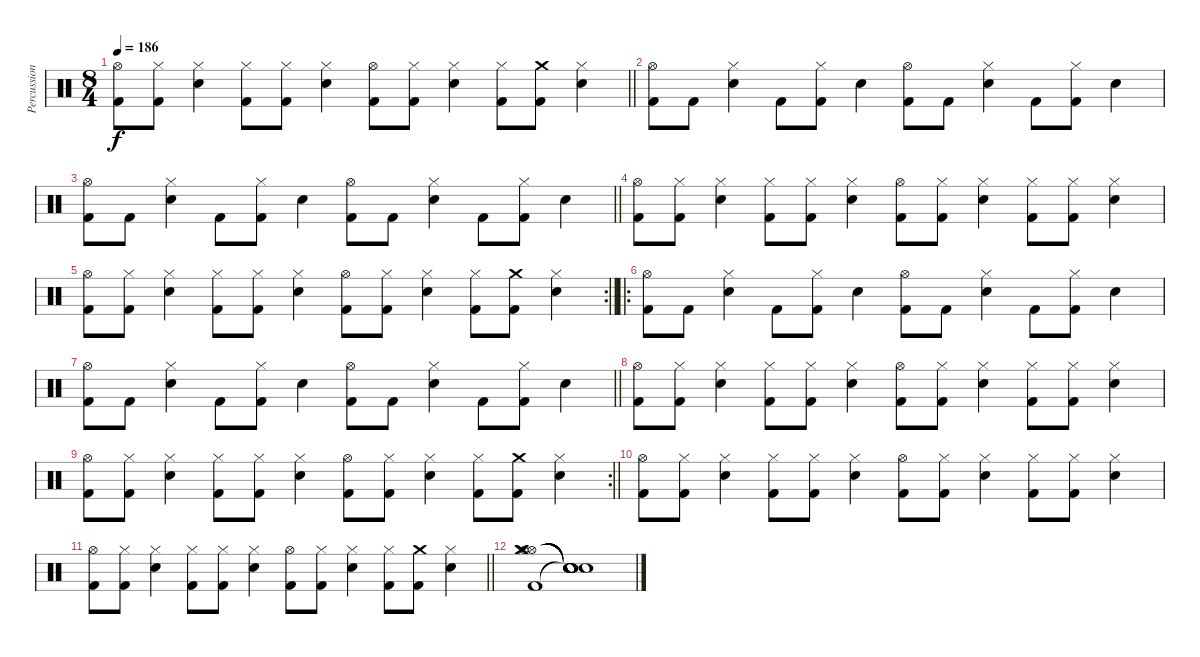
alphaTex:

\track ("Percussion" "Percussion") {instrument percussion}
\staff {score}
\articulation defaults
\ts (8 4)
\tempo 186
\clef neutral
\barLineRight lightlight
\ks c
("Hi-Hat (open)" "Kick (hit) 2").8{dy f} ("Hi-Hat (closed)" "Kick (hit) 2").8 ("Hi-Hat (closed)" "Electric Snare (hit)").4 ("Hi-Hat (closed)" "Kick (hit) 2").8 ("Hi-Hat (closed)" "Kick (hit) 2").8 ("Hi-Hat (closed)" "Electric Snare (hit)").4 ("Hi-Hat (open)" "Kick (hit) 2").8 ("Hi-Hat (closed)" "Kick (hit) 2").8 ("Hi-Hat (closed)" "Electric Snare (hit)").4 ("Hi-Hat (closed)" "Kick (hit) 2").8 ("Crash medium (hit)" "Kick (hit) 2").8 ("Hi-Hat (closed)" "Electric Snare (hit)").4 |
("Hi-Hat (open)" "Kick (hit) 2").8 "Kick (hit) 2".8 ("Hi-Hat (closed)" "Electric Snare (hit)").4 "Kick (hit) 2".8 ("Hi-Hat (closed)" "Kick (hit) 2").8 "Electric Snare (hit)".4 ("Hi-Hat (open)" "Kick (hit) 2").8 "Kick (hit) 2".8 ("Hi-Hat (closed)" "Electric Snare (hit)").4 "Kick (hit) 2".8 ("Hi-Hat (closed)" "Kick (hit) 2").8 "Electric Snare (hit)".4 |
\barLineRight lightlight
("Hi-Hat (open)" "Kick (hit) 2").8 "Kick (hit) 2".8 ("Hi-Hat (closed)" "Electric Snare (hit)").4 "Kick (hit) 2".8 ("Hi-Hat (closed)" "Kick (hit) 2").8 "Electric Snare (hit)".4 ("Hi-Hat (open)" "Kick (hit) 2").8 "Kick (hit) 2".8 ("Hi-Hat (closed)" "Electric Snare (hit)").4 "Kick (hit) 2".8 ("Hi-Hat (closed)" "Kick (hit) 2").8 "Electric Snare (hit)".4 |
("Hi-Hat (open)" "Kick (hit) 2").8 ("Hi-Hat (closed)" "Kick (hit) 2").8 ("Hi-Hat (closed)" "Electric Snare (hit)").4 ("Hi-Hat (closed)" "Kick (hit) 2").8 ("Hi-Hat (closed)" "Kick (hit) 2").8 ("Hi-Hat (closed)" "Electric Snare (hit)").4 ("Hi-Hat (open)" "Kick (hit) 2").8 ("Hi-Hat (closed)" "Kick (hit) 2").8 ("Hi-Hat (closed)" "Electric Snare (hit)").4 ("Hi-Hat (closed)" "Kick (hit) 2").8 ("Hi-Hat (closed)" "Kick (hit) 2").8 ("Hi-Hat (closed)" "Electric Snare (hit)").4 |
\rc 2
\barLineRight lightlight
("Hi-Hat (open)" "Kick (hit) 2").8 ("Hi-Hat (closed)" "Kick (hit) 2").8 ("Hi-Hat (closed)" "Electric Snare (hit)").4 ("Hi-Hat (closed)" "Kick (hit) 2").8 ("Hi-Hat (closed)" "Kick (hit) 2").8 ("Hi-Hat (closed)" "Electric Snare (hit)").4 ("Hi-Hat (open)" "Kick (hit) 2").8 ("Hi-Hat (closed)" "Kick (hit) 2").8 ("Hi-Hat (closed)" "Electric Snare (hit)").4 ("Hi-Hat (closed)" "Kick (hit) 2").8 ("Crash medium (hit)" "Kick (hit) 2").8 ("Hi-Hat (closed)" "Electric Snare (hit)").4 |
\ro
("Hi-Hat (open)" "Kick (hit) 2").8 "Kick (hit) 2".8 ("Hi-Hat (closed)" "Electric Snare (hit)").4 "Kick (hit) 2".8 ("Hi-Hat (closed)" "Kick (hit) 2").8 "Electric Snare (hit)".4 ("Hi-Hat (open)" "Kick (hit) 2").8 "Kick (hit) 2".8 ("Hi-Hat (closed)" "Electric Snare (hit)").4 "Kick (hit) 2".8 ("Hi-Hat (closed)" "Kick (hit) 2").8 "Electric Snare (hit)".4 |
\barLineRight lightlight
("Hi-Hat (open)" "Kick (hit) 2").8 "Kick (hit) 2".8 ("Hi-Hat (closed)" "Electric Snare (hit)").4 "Kick (hit) 2".8 ("Hi-Hat (closed)" "Kick (hit) 2").8 "Electric Snare (hit)".4 ("Hi-Hat (open)" "Kick (hit) 2").8 "Kick (hit) 2".8 ("Hi-Hat (closed)" "Electric Snare (hit)").4 "Kick (hit) 2".8 ("Hi-Hat (closed)" "Kick (hit) 2").8 "Electric Snare (hit)".4 |
("Hi-Hat (open)" "Kick (hit) 2").8 ("Hi-Hat (closed)" "Kick (hit) 2").8 ("Hi-Hat (closed)" "Electric Snare (hit)").4 ("Hi-Hat (closed)" "Kick (hit) 2").8 ("Hi-Hat (closed)" "Kick (hit) 2").8 ("Hi-Hat (closed)" "Electric Snare (hit)").4 ("Hi-Hat (open)" "Kick (hit) 2").8 ("Hi-Hat (closed)" "Kick (hit) 2").8 ("Hi-Hat (closed)" "Electric Snare (hit)").4 ("Hi-Hat (closed)" "Kick (hit) 2").8 ("Hi-Hat (closed)" "Kick (hit) 2").8 ("Hi-Hat (closed)" "Electric Snare (hit)").4 |
\rc 2
\barLineRight lightlight
("Hi-Hat (open)" "Kick (hit) 2").8 ("Hi-Hat (closed)" "Kick (hit) 2").8 ("Hi-Hat (closed)" "Electric Snare (hit)").4 ("Hi-Hat (closed)" "Kick (hit) 2").8 ("Hi-Hat (closed)" "Kick (hit) 2").8 ("Hi-Hat (closed)" "Electric Snare (hit)").4 ("Hi-Hat (open)" "Kick (hit) 2").8 ("Hi-Hat (closed)" "Kick (hit) 2").8 ("Hi-Hat (closed)" "Electric Snare (hit)").4 ("Hi-Hat (closed)" "Kick (hit) 2").8 ("Crash medium (hit)" "Kick (hit) 2").8 ("Hi-Hat (closed)" "Electric Snare (hit)").4 |
("Hi-Hat (open)" "Kick (hit) 2").8 ("Hi-Hat (closed)" "Kick (hit) 2").8 ("Hi-Hat (closed)" "Electric Snare (hit)").4 ("Hi-Hat (closed)" "Kick (hit) 2").8 ("Hi-Hat (closed)" "Kick (hit) 2").8 ("Hi-Hat (closed)" "Electric Snare (hit)").4 ("Hi-Hat (open)" "Kick (hit) 2").8 ("Hi-Hat (closed)" "Kick (hit) 2").8 ("Hi-Hat (closed)" "Electric Snare (hit)").4 ("Hi-Hat (closed)" "Kick (hit) 2").8 ("Hi-Hat (closed)" "Kick (hit) 2").8 ("Hi-Hat (closed)" "Electric Snare (hit)").4 |
\barLineRight lightlight
("Hi-Hat (open)" "Kick (hit) 2").8 ("Hi-Hat (closed)" "Kick (hit) 2").8 ("Hi-Hat (closed)" "Electric Snare (hit)").4 ("Hi-Hat (closed)" "Kick (hit) 2").8 ("Hi-Hat (closed)" "Kick (hit) 2").8 ("Hi-Hat (closed)" "Electric Snare (hit)").4 ("Hi-Hat (open)" "Kick (hit) 2").8 ("Hi-Hat (closed)" "Kick (hit) 2").8 ("Hi-Hat (closed)" "Electric Snare (hit)").4 ("Hi-Hat (closed)" "Kick (hit) 2").8 ("Crash medium (hit)" "Kick (hit) 2").8 ("Hi-Hat (closed)" "Electric Snare (hit)").4 |
("Hi-Hat (open)" "Hi-Hat (open)" "Hi-Hat (closed)" "Crash medium (hit)" "Crash medium (hit)" "Kick (hit) 2").1 ("Snare (hit)"{t} "Snare (hit)"{t} "Snare (hit)"{t} "Snare (hit)"{t} "Snare (hit)"{t} "Snare (hit)"{t}).1
